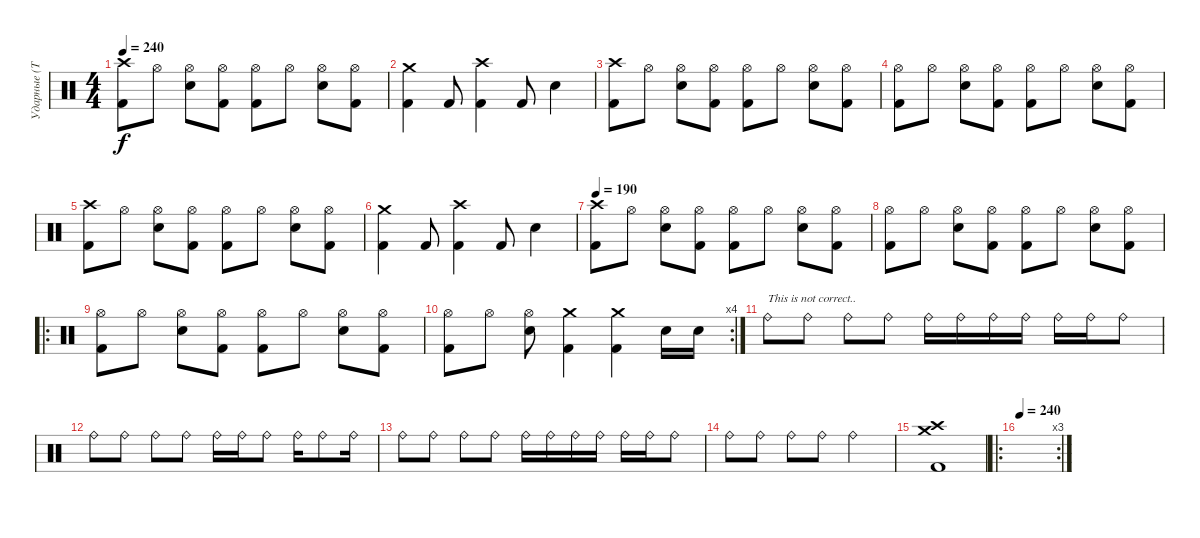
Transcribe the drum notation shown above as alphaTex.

\track ("Ударные (Тьодальв)" "Ударные (Т") {instrument percussion}
\staff {score}
\articulation defaults
\ts (4 4)
\tempo 240
\clef neutral
\ks c
("Crash high (hit)" "Kick (hit) 2").8{dy f} "Hi-Hat (open)".8 ("Hi-Hat (open)" "Snare (hit) 2").8 ("Hi-Hat (open)" "Kick (hit) 2").8 ("Hi-Hat (open)" "Kick (hit) 2").8 "Hi-Hat (open)".8 ("Hi-Hat (open)" "Snare (hit) 2").8 ("Hi-Hat (open)" "Kick (hit) 2").8 |
("Crash medium (hit)" "Kick (hit) 2").4 "Kick (hit) 2".8 ("Crash high (hit)" "Kick (hit) 2").4 "Kick (hit) 2".8 "Snare (hit) 2".4 |
("Crash high (hit)" "Kick (hit) 2").8 "Hi-Hat (open)".8 ("Hi-Hat (open)" "Snare (hit) 2").8 ("Hi-Hat (open)" "Kick (hit) 2").8 ("Hi-Hat (open)" "Kick (hit) 2").8 "Hi-Hat (open)".8 ("Hi-Hat (open)" "Snare (hit) 2").8 ("Hi-Hat (open)" "Kick (hit) 2").8 |
("Hi-Hat (open)" "Kick (hit) 2").8 "Hi-Hat (open)".8 ("Hi-Hat (open)" "Snare (hit) 2").8 ("Hi-Hat (open)" "Kick (hit) 2").8 ("Hi-Hat (open)" "Kick (hit) 2").8 "Hi-Hat (open)".8 ("Hi-Hat (open)" "Snare (hit) 2").8 ("Hi-Hat (open)" "Kick (hit) 2").8 |
("Crash high (hit)" "Kick (hit) 2").8 "Hi-Hat (open)".8 ("Hi-Hat (open)" "Snare (hit) 2").8 ("Hi-Hat (open)" "Kick (hit) 2").8 ("Hi-Hat (open)" "Kick (hit) 2").8 "Hi-Hat (open)".8 ("Hi-Hat (open)" "Snare (hit) 2").8 ("Hi-Hat (open)" "Kick (hit) 2").8 |
("Crash medium (hit)" "Kick (hit) 2").4 "Kick (hit) 2".8 ("Crash high (hit)" "Kick (hit) 2").4 "Kick (hit) 2".8 "Snare (hit) 2".4 |
\tempo 190
("Crash high (hit)" "Kick (hit) 2").8 "Hi-Hat (open)".8 ("Hi-Hat (open)" "Snare (hit) 2").8 ("Hi-Hat (open)" "Kick (hit) 2").8 ("Hi-Hat (open)" "Kick (hit) 2").8 "Hi-Hat (open)".8 ("Hi-Hat (open)" "Snare (hit) 2").8 ("Hi-Hat (open)" "Kick (hit) 2").8 |
("Hi-Hat (open)" "Kick (hit) 2").8 "Hi-Hat (open)".8 ("Hi-Hat (open)" "Snare (hit) 2").8 ("Hi-Hat (open)" "Kick (hit) 2").8 ("Hi-Hat (open)" "Kick (hit) 2").8 "Hi-Hat (open)".8 ("Hi-Hat (open)" "Snare (hit) 2").8 ("Hi-Hat (open)" "Kick (hit) 2").8 |
\ro
("Hi-Hat (open)" "Kick (hit) 2").8 "Hi-Hat (open)".8 ("Hi-Hat (open)" "Snare (hit) 2").8 ("Hi-Hat (open)" "Kick (hit) 2").8 ("Hi-Hat (open)" "Kick (hit) 2").8 "Hi-Hat (open)".8 ("Hi-Hat (open)" "Snare (hit) 2").8 ("Hi-Hat (open)" "Kick (hit) 2").8 |
\rc 4
("Hi-Hat (open)" "Kick (hit) 2").8 "Hi-Hat (open)".8 ("Hi-Hat (open)" "Snare (hit) 2").8 ("Crash medium (hit)" "Kick (hit) 2").4 ("Crash medium (hit)" "Kick (hit) 2").4 "Snare (hit) 2".16 "Snare (hit) 2".16 |
"Ride (bell)".8{txt "This is not correct.. "} "Ride (bell)".8 "Ride (bell)".8 "Ride (bell)".8 "Ride (bell)".16 "Ride (bell)".16 "Ride (bell)".16 "Ride (bell)".16 "Ride (bell)".16 "Ride (bell)".16 "Ride (bell)".8 |
"Ride (bell)".8 "Ride (bell)".8 "Ride (bell)".8 "Ride (bell)".8 "Ride (bell)".16 "Ride (bell)".16 "Ride (bell)".8 "Ride (bell)".16 "Ride (bell)".8 "Ride (bell)".16 |
"Ride (bell)".8 "Ride (bell)".8 "Ride (bell)".8 "Ride (bell)".8 "Ride (bell)".16 "Ride (bell)".16 "Ride (bell)".16 "Ride (bell)".16 "Ride (bell)".16 "Ride (bell)".16 "Ride (bell)".8 |
"Ride (bell)".8 "Ride (bell)".8 "Ride (bell)".8 "Ride (bell)".8 "Ride (bell)".2 |
("Crash high (hit)" "Crash medium (hit)" "Kick (hit) 2").1 |
\ro
\rc 3
\tempo 240
